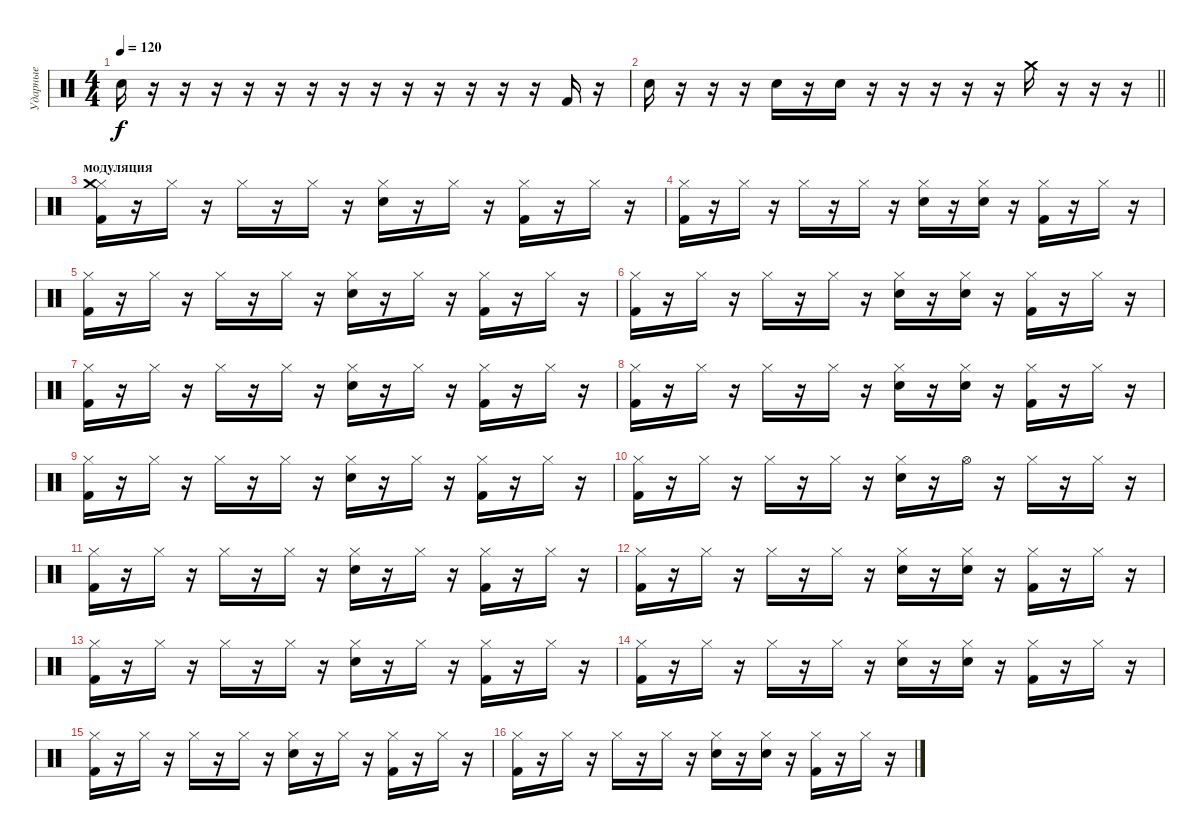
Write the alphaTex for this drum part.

\track ("Ударные" "Ударные") {instrument percussion}
\staff {score}
\articulation defaults
\ts (4 4)
\tempo 120
\clef neutral
\ks c "Snare (hit) 2".16{dy f}
r.16 r.16 r.16 r.16 r.16 r.16 r.16 r.16 r.16 r.16 r.16 r.16 r.16 "Kick (hit) 2".16 r.16 |
\barLineRight lightlight "Snare (hit) 2".16
r.16 r.16 r.16 "Snare (hit) 2".16 r.16 "Snare (hit) 2".16 r.16 r.16 r.16 r.16 r.16 "Crash medium (hit)".16 r.16 r.16 r.16 |
\section ("" "модуляция")
("Hi-Hat (closed)" "Kick (hit) 2" "Crash medium (hit)").16 r.16 "Hi-Hat (closed)".16 r.16 "Hi-Hat (closed)".16 r.16 "Hi-Hat (closed)".16 r.16 ("Hi-Hat (closed)" "Snare (hit) 2").16 r.16 "Hi-Hat (closed)".16 r.16 ("Hi-Hat (closed)" "Kick (hit) 2").16 r.16 "Hi-Hat (closed)".16 r.16 |
("Hi-Hat (closed)" "Kick (hit) 2").16 r.16 "Hi-Hat (closed)".16 r.16 "Hi-Hat (closed)".16 r.16 "Hi-Hat (closed)".16 r.16 ("Hi-Hat (closed)" "Snare (hit) 2").16 r.16 ("Hi-Hat (closed)" "Snare (hit) 2").16 r.16 ("Hi-Hat (closed)" "Kick (hit) 2").16 r.16 "Hi-Hat (closed)".16 r.16 |
("Hi-Hat (closed)" "Kick (hit) 2").16 r.16 "Hi-Hat (closed)".16 r.16 "Hi-Hat (closed)".16 r.16 "Hi-Hat (closed)".16 r.16 ("Hi-Hat (closed)" "Snare (hit) 2").16 r.16 "Hi-Hat (closed)".16 r.16 ("Hi-Hat (closed)" "Kick (hit) 2").16 r.16 "Hi-Hat (closed)".16 r.16 |
("Hi-Hat (closed)" "Kick (hit) 2").16 r.16 "Hi-Hat (closed)".16 r.16 "Hi-Hat (closed)".16 r.16 "Hi-Hat (closed)".16 r.16 ("Hi-Hat (closed)" "Snare (hit) 2").16 r.16 ("Hi-Hat (closed)" "Snare (hit) 2").16 r.16 ("Hi-Hat (closed)" "Kick (hit) 2").16 r.16 "Hi-Hat (closed)".16 r.16 |
("Hi-Hat (closed)" "Kick (hit) 2").16 r.16 "Hi-Hat (closed)".16 r.16 "Hi-Hat (closed)".16 r.16 "Hi-Hat (closed)".16 r.16 ("Hi-Hat (closed)" "Snare (hit) 2").16 r.16 "Hi-Hat (closed)".16 r.16 ("Hi-Hat (closed)" "Kick (hit) 2").16 r.16 "Hi-Hat (closed)".16 r.16 |
("Hi-Hat (closed)" "Kick (hit) 2").16 r.16 "Hi-Hat (closed)".16 r.16 "Hi-Hat (closed)".16 r.16 "Hi-Hat (closed)".16 r.16 ("Hi-Hat (closed)" "Snare (hit) 2").16 r.16 ("Hi-Hat (closed)" "Snare (hit) 2").16 r.16 ("Hi-Hat (closed)" "Kick (hit) 2").16 r.16 "Hi-Hat (closed)".16 r.16 |
("Hi-Hat (closed)" "Kick (hit) 2").16 r.16 "Hi-Hat (closed)".16 r.16 "Hi-Hat (closed)".16 r.16 "Hi-Hat (closed)".16 r.16 ("Hi-Hat (closed)" "Snare (hit) 2").16 r.16 "Hi-Hat (closed)".16 r.16 ("Hi-Hat (closed)" "Kick (hit) 2").16 r.16 "Hi-Hat (closed)".16 r.16 |
("Hi-Hat (closed)" "Kick (hit) 2").16 r.16 "Hi-Hat (closed)".16 r.16 "Hi-Hat (closed)".16 r.16 "Hi-Hat (closed)".16 r.16 ("Hi-Hat (closed)" "Snare (hit) 2").16 r.16 "Hi-Hat (open)".16 r.16 "Hi-Hat (closed)".16 r.16 "Hi-Hat (closed)".16 r.16 |
("Hi-Hat (closed)" "Kick (hit) 2").16 r.16 "Hi-Hat (closed)".16 r.16 "Hi-Hat (closed)".16 r.16 "Hi-Hat (closed)".16 r.16 ("Hi-Hat (closed)" "Snare (hit) 2").16 r.16 "Hi-Hat (closed)".16 r.16 ("Hi-Hat (closed)" "Kick (hit) 2").16 r.16 "Hi-Hat (closed)".16 r.16 |
("Hi-Hat (closed)" "Kick (hit) 2").16 r.16 "Hi-Hat (closed)".16 r.16 "Hi-Hat (closed)".16 r.16 "Hi-Hat (closed)".16 r.16 ("Hi-Hat (closed)" "Snare (hit) 2").16 r.16 ("Hi-Hat (closed)" "Snare (hit) 2").16 r.16 ("Hi-Hat (closed)" "Kick (hit) 2").16 r.16 "Hi-Hat (closed)".16 r.16 |
("Hi-Hat (closed)" "Kick (hit) 2").16 r.16 "Hi-Hat (closed)".16 r.16 "Hi-Hat (closed)".16 r.16 "Hi-Hat (closed)".16 r.16 ("Hi-Hat (closed)" "Snare (hit) 2").16 r.16 "Hi-Hat (closed)".16 r.16 ("Hi-Hat (closed)" "Kick (hit) 2").16 r.16 "Hi-Hat (closed)".16 r.16 |
("Hi-Hat (closed)" "Kick (hit) 2").16 r.16 "Hi-Hat (closed)".16 r.16 "Hi-Hat (closed)".16 r.16 "Hi-Hat (closed)".16 r.16 ("Hi-Hat (closed)" "Snare (hit) 2").16 r.16 ("Hi-Hat (closed)" "Snare (hit) 2").16 r.16 ("Hi-Hat (closed)" "Kick (hit) 2").16 r.16 "Hi-Hat (closed)".16 r.16 |
("Hi-Hat (closed)" "Kick (hit) 2").16 r.16 "Hi-Hat (closed)".16 r.16 "Hi-Hat (closed)".16 r.16 "Hi-Hat (closed)".16 r.16 ("Hi-Hat (closed)" "Snare (hit) 2").16 r.16 "Hi-Hat (closed)".16 r.16 ("Hi-Hat (closed)" "Kick (hit) 2").16 r.16 "Hi-Hat (closed)".16 r.16 |
("Hi-Hat (closed)" "Kick (hit) 2").16 r.16 "Hi-Hat (closed)".16 r.16 "Hi-Hat (closed)".16 r.16 "Hi-Hat (closed)".16 r.16 ("Hi-Hat (closed)" "Snare (hit) 2").16 r.16 ("Hi-Hat (closed)" "Snare (hit) 2").16 r.16 ("Hi-Hat (closed)" "Kick (hit) 2").16 r.16 "Hi-Hat (closed)".16 r.16
